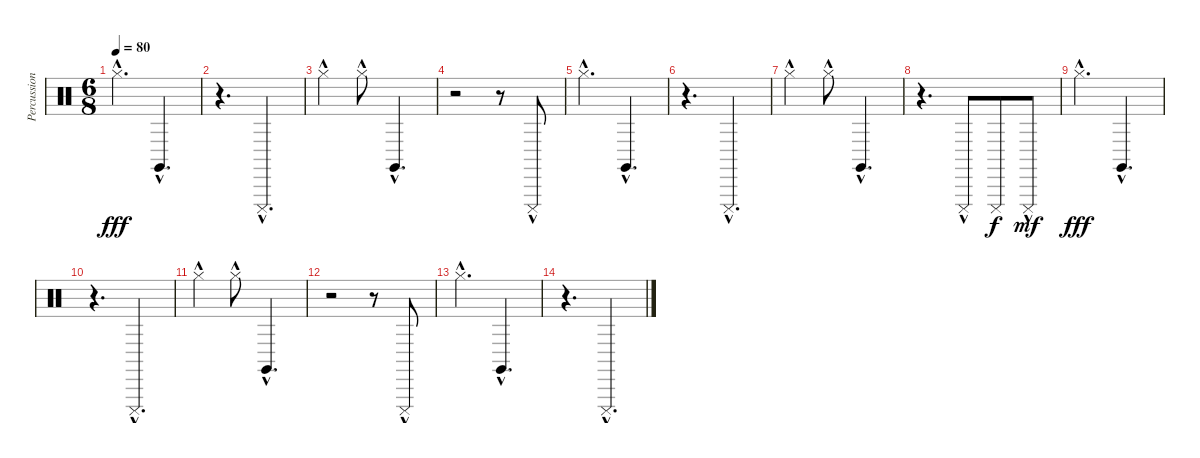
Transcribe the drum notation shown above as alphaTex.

\track ("Percussion" "Percussion") {instrument percussion}
\staff {score}
\articulation defaults
\ts (6 8)
\tempo 80
\clef neutral
\ks c "Hi-Hat (closed)"{hac}.4{d dy fff} "Claves (hit)"{hac}.4{d}
|
r.4{d} "Cuica (mute)"{hac}.4{d} |
"Hi-Hat (closed)"{hac}.4 "Hi-Hat (closed)"{hac}.8 "Claves (hit)"{hac}.4{d} |
r.2 r.8 "Cuica (mute)"{hac}.8 |
"Hi-Hat (closed)"{hac}.4{d} "Claves (hit)"{hac}.4{d} |
r.4{d} "Cuica (mute)"{hac}.4{d} |
"Hi-Hat (closed)"{hac}.4 "Hi-Hat (closed)"{hac}.8 "Claves (hit)"{hac}.4{d} |
r.4{d} "Cuica (mute)"{hac}.8 "Cuica (mute)".8{dy f} "Cuica (mute)"{hac}.8{dy mf} |
"Hi-Hat (closed)"{hac}.4{d dy fff} "Claves (hit)"{hac}.4{d} |
r.4{d} "Cuica (mute)"{hac}.4{d} |
"Hi-Hat (closed)"{hac}.4 "Hi-Hat (closed)"{hac}.8 "Claves (hit)"{hac}.4{d} |
r.2 r.8 "Cuica (mute)"{hac}.8 |
"Hi-Hat (closed)"{hac}.4{d} "Claves (hit)"{hac}.4{d} |
r.4{d} "Cuica (mute)"{hac}.4{d}
